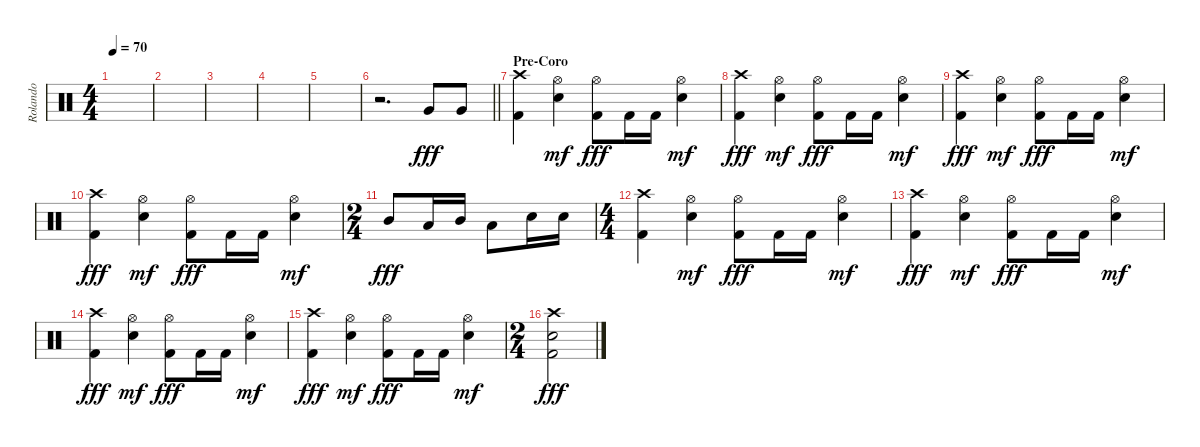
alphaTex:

\track ("Rolando" "Rolando") {instrument percussion}
\staff {score}
\articulation defaults
\ts (4 4)
\tempo 70
\clef neutral
\ks c
|
|
|
|
|
\barLineRight lightlight
r.2{d volume 16} "Very Low Tom (hit)".8{dy fff} "Very Low Tom (hit)".8 |
\section ("" "Pre-Coro")
("Crash high (hit)" "Kick (hit) 2").4 ("Snare (hit) 2" "Hi-Hat (open)").4{dy mf} ("Hi-Hat (open)" "Kick (hit) 2").8{dy fff} "Kick (hit) 2".16 "Kick (hit) 2".16 ("Snare (hit) 2" "Hi-Hat (open)").4{dy mf} |
("Crash high (hit)" "Kick (hit) 2").4{dy fff} ("Snare (hit) 2" "Hi-Hat (open)").4{dy mf} ("Hi-Hat (open)" "Kick (hit) 2").8{dy fff} "Kick (hit) 2".16 "Kick (hit) 2".16 ("Snare (hit) 2" "Hi-Hat (open)").4{dy mf} |
("Crash high (hit)" "Kick (hit) 2").4{dy fff} ("Snare (hit) 2" "Hi-Hat (open)").4{dy mf} ("Hi-Hat (open)" "Kick (hit) 2").8{dy fff} "Kick (hit) 2".16 "Kick (hit) 2".16 ("Snare (hit) 2" "Hi-Hat (open)").4{dy mf} |
("Crash high (hit)" "Kick (hit) 2").4{dy fff} ("Snare (hit) 2" "Hi-Hat (open)").4{dy mf} ("Hi-Hat (open)" "Kick (hit) 2").8{dy fff} "Kick (hit) 2".16 "Kick (hit) 2".16 ("Snare (hit) 2" "Hi-Hat (open)").4{dy mf} |
\ts (2 4)
"Mid Tom (hit)".8{dy fff} "Low Tom (hit)".16 "Mid Tom (hit)".16 "Low Tom (hit)".8 "Snare (hit) 2".16 "Snare (hit) 2".16 |
\ts (4 4)
("Crash high (hit)" "Kick (hit) 2").4 ("Snare (hit) 2" "Hi-Hat (open)").4{dy mf} ("Hi-Hat (open)" "Kick (hit) 2").8{dy fff} "Kick (hit) 2".16 "Kick (hit) 2".16 ("Snare (hit) 2" "Hi-Hat (open)").4{dy mf} |
("Crash high (hit)" "Kick (hit) 2").4{dy fff} ("Snare (hit) 2" "Hi-Hat (open)").4{dy mf} ("Hi-Hat (open)" "Kick (hit) 2").8{dy fff} "Kick (hit) 2".16 "Kick (hit) 2".16 ("Snare (hit) 2" "Hi-Hat (open)").4{dy mf} |
("Crash high (hit)" "Kick (hit) 2").4{dy fff} ("Snare (hit) 2" "Hi-Hat (open)").4{dy mf} ("Hi-Hat (open)" "Kick (hit) 2").8{dy fff} "Kick (hit) 2".16 "Kick (hit) 2".16 ("Snare (hit) 2" "Hi-Hat (open)").4{dy mf} |
("Crash high (hit)" "Kick (hit) 2").4{dy fff} ("Snare (hit) 2" "Hi-Hat (open)").4{dy mf} ("Hi-Hat (open)" "Kick (hit) 2").8{dy fff} "Kick (hit) 2".16 "Kick (hit) 2".16 ("Snare (hit) 2" "Hi-Hat (open)").4{dy mf} |
\ts (2 4)
("Crash high (hit)" "Kick (hit) 2" "Snare (hit) 2").2{dy fff}
